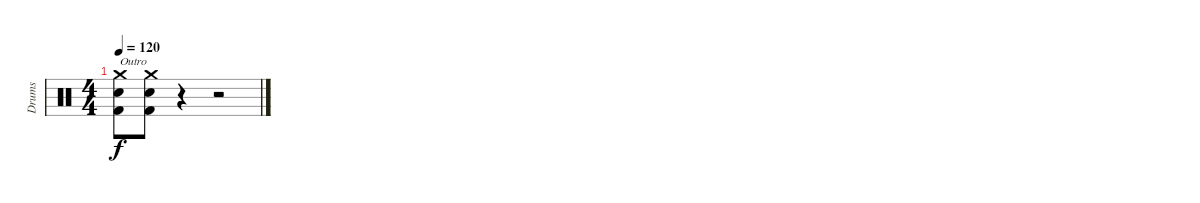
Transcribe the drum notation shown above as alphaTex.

\track ("Drums" "Drums") {instrument percussion}
\staff {score}
\articulation defaults
\ts (4 4)
\tempo 120
\clef neutral
\ks c
("Crash medium (hit)" "Electric Snare (hit)" "Kick (hit) 2").8{txt "Outro" dy f} ("Crash medium (hit)" "Electric Snare (hit)" "Kick (hit) 2").8 r.4 r.2
